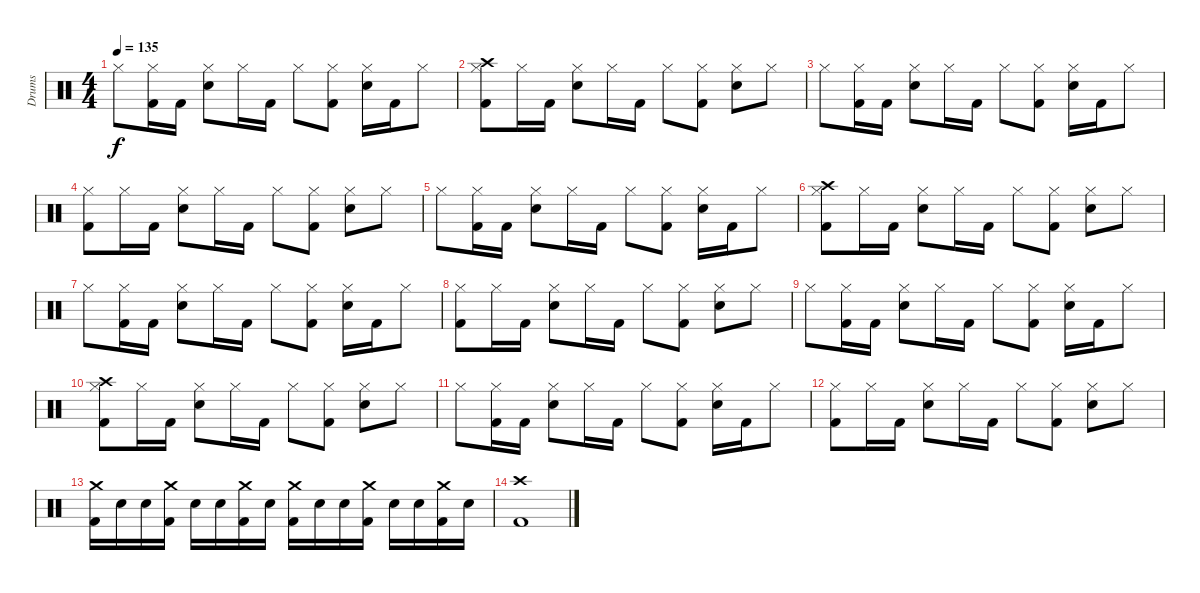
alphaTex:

\track ("Drums" "Drums") {instrument percussion}
\staff {score}
\articulation defaults
\ts (4 4)
\tempo 135
\clef neutral
\ks c "Hi-Hat (closed)".8{dy f}
("Hi-Hat (closed)" "Kick (hit) 2").16 "Kick (hit) 2".16 ("Hi-Hat (closed)" "Snare (hit) 2").8 "Hi-Hat (closed)".16 "Kick (hit) 2".16 "Hi-Hat (closed)".8 ("Hi-Hat (closed)" "Kick (hit) 2").8 ("Hi-Hat (closed)" "Snare (hit) 2").16 "Kick (hit) 2".16 "Hi-Hat (closed)".8 |
("Hi-Hat (closed)" "Crash high (hit)" "Kick (hit) 2").8 "Hi-Hat (closed)".16 "Kick (hit) 2".16 ("Hi-Hat (closed)" "Snare (hit) 2").8 "Hi-Hat (closed)".16 "Kick (hit) 2".16 "Hi-Hat (closed)".8 ("Hi-Hat (closed)" "Kick (hit) 2").8 ("Hi-Hat (closed)" "Snare (hit) 2").8 "Hi-Hat (closed)".8 |
"Hi-Hat (closed)".8 ("Hi-Hat (closed)" "Kick (hit) 2").16 "Kick (hit) 2".16 ("Hi-Hat (closed)" "Snare (hit) 2").8 "Hi-Hat (closed)".16 "Kick (hit) 2".16 "Hi-Hat (closed)".8 ("Hi-Hat (closed)" "Kick (hit) 2").8 ("Hi-Hat (closed)" "Snare (hit) 2").16 "Kick (hit) 2".16 "Hi-Hat (closed)".8 |
("Hi-Hat (closed)" "Kick (hit) 2").8 "Hi-Hat (closed)".16 "Kick (hit) 2".16 ("Hi-Hat (closed)" "Snare (hit) 2").8 "Hi-Hat (closed)".16 "Kick (hit) 2".16 "Hi-Hat (closed)".8 ("Hi-Hat (closed)" "Kick (hit) 2").8 ("Hi-Hat (closed)" "Snare (hit) 2").8 "Hi-Hat (closed)".8 |
"Hi-Hat (closed)".8 ("Hi-Hat (closed)" "Kick (hit) 2").16 "Kick (hit) 2".16 ("Hi-Hat (closed)" "Snare (hit) 2").8 "Hi-Hat (closed)".16 "Kick (hit) 2".16 "Hi-Hat (closed)".8 ("Hi-Hat (closed)" "Kick (hit) 2").8 ("Hi-Hat (closed)" "Snare (hit) 2").16 "Kick (hit) 2".16 "Hi-Hat (closed)".8 |
("Hi-Hat (closed)" "Crash high (hit)" "Kick (hit) 2").8 "Hi-Hat (closed)".16 "Kick (hit) 2".16 ("Hi-Hat (closed)" "Snare (hit) 2").8 "Hi-Hat (closed)".16 "Kick (hit) 2".16 "Hi-Hat (closed)".8 ("Hi-Hat (closed)" "Kick (hit) 2").8 ("Hi-Hat (closed)" "Snare (hit) 2").8 "Hi-Hat (closed)".8 |
"Hi-Hat (closed)".8 ("Hi-Hat (closed)" "Kick (hit) 2").16 "Kick (hit) 2".16 ("Hi-Hat (closed)" "Snare (hit) 2").8 "Hi-Hat (closed)".16 "Kick (hit) 2".16 "Hi-Hat (closed)".8 ("Hi-Hat (closed)" "Kick (hit) 2").8 ("Hi-Hat (closed)" "Snare (hit) 2").16 "Kick (hit) 2".16 "Hi-Hat (closed)".8 |
("Hi-Hat (closed)" "Kick (hit) 2").8 "Hi-Hat (closed)".16 "Kick (hit) 2".16 ("Hi-Hat (closed)" "Snare (hit) 2").8 "Hi-Hat (closed)".16 "Kick (hit) 2".16 "Hi-Hat (closed)".8 ("Hi-Hat (closed)" "Kick (hit) 2").8 ("Hi-Hat (closed)" "Snare (hit) 2").8 "Hi-Hat (closed)".8 |
"Hi-Hat (closed)".8 ("Hi-Hat (closed)" "Kick (hit) 2").16 "Kick (hit) 2".16 ("Hi-Hat (closed)" "Snare (hit) 2").8 "Hi-Hat (closed)".16 "Kick (hit) 2".16 "Hi-Hat (closed)".8 ("Hi-Hat (closed)" "Kick (hit) 2").8 ("Hi-Hat (closed)" "Snare (hit) 2").16 "Kick (hit) 2".16 "Hi-Hat (closed)".8 |
("Hi-Hat (closed)" "Crash high (hit)" "Kick (hit) 2").8 "Hi-Hat (closed)".16 "Kick (hit) 2".16 ("Hi-Hat (closed)" "Snare (hit) 2").8 "Hi-Hat (closed)".16 "Kick (hit) 2".16 "Hi-Hat (closed)".8 ("Hi-Hat (closed)" "Kick (hit) 2").8 ("Hi-Hat (closed)" "Snare (hit) 2").8 "Hi-Hat (closed)".8 |
"Hi-Hat (closed)".8 ("Hi-Hat (closed)" "Kick (hit) 2").16 "Kick (hit) 2".16 ("Hi-Hat (closed)" "Snare (hit) 2").8 "Hi-Hat (closed)".16 "Kick (hit) 2".16 "Hi-Hat (closed)".8 ("Hi-Hat (closed)" "Kick (hit) 2").8 ("Hi-Hat (closed)" "Snare (hit) 2").16 "Kick (hit) 2".16 "Hi-Hat (closed)".8 |
("Hi-Hat (closed)" "Kick (hit) 2").8 "Hi-Hat (closed)".16 "Kick (hit) 2".16 ("Hi-Hat (closed)" "Snare (hit) 2").8 "Hi-Hat (closed)".16 "Kick (hit) 2".16 "Hi-Hat (closed)".8 ("Hi-Hat (closed)" "Kick (hit) 2").8 ("Hi-Hat (closed)" "Snare (hit) 2").8 "Hi-Hat (closed)".8 |
("Crash medium (hit)" "Kick (hit) 2").16 "Snare (hit) 2".16 "Snare (hit) 2".16 ("Crash medium (hit)" "Kick (hit) 2").16 "Snare (hit) 2".16 "Snare (hit) 2".16 ("Crash medium (hit)" "Kick (hit) 2").16 "Snare (hit) 2".16 ("Crash medium (hit)" "Kick (hit) 2").16 "Snare (hit) 2".16 "Snare (hit) 2".16 ("Crash medium (hit)" "Kick (hit) 2").16 "Snare (hit) 2".16 "Snare (hit) 2".16 ("Crash medium (hit)" "Kick (hit) 2").16 "Snare (hit) 2".16 |
("Crash high (hit)" "Kick (hit) 2").1
